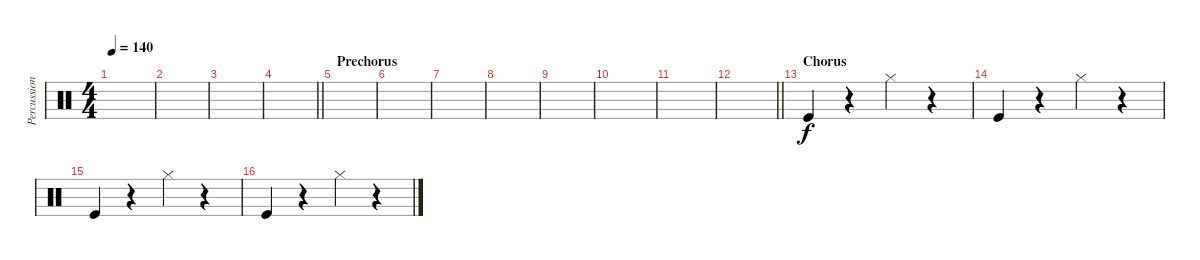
\track ("Percussion" "Percussion") {instrument percussion}
\staff {score}
\articulation defaults
\ts (4 4)
\tempo 140
\clef neutral
\ks c
|
|
|
\barLineRight lightlight
|
\section ("" "Prechorus")
|
|
|
|
|
|
|
\barLineRight lightlight
|
\section ("" "Chorus")
"Kick (hit)".4 r.4 "Hi-Hat (closed)".4 r.4 |
"Kick (hit)".4 r.4 "Hi-Hat (closed)".4 r.4 |
"Kick (hit)".4 r.4 "Hi-Hat (closed)".4 r.4 |
"Kick (hit)".4 r.4 "Hi-Hat (closed)".4 r.4
